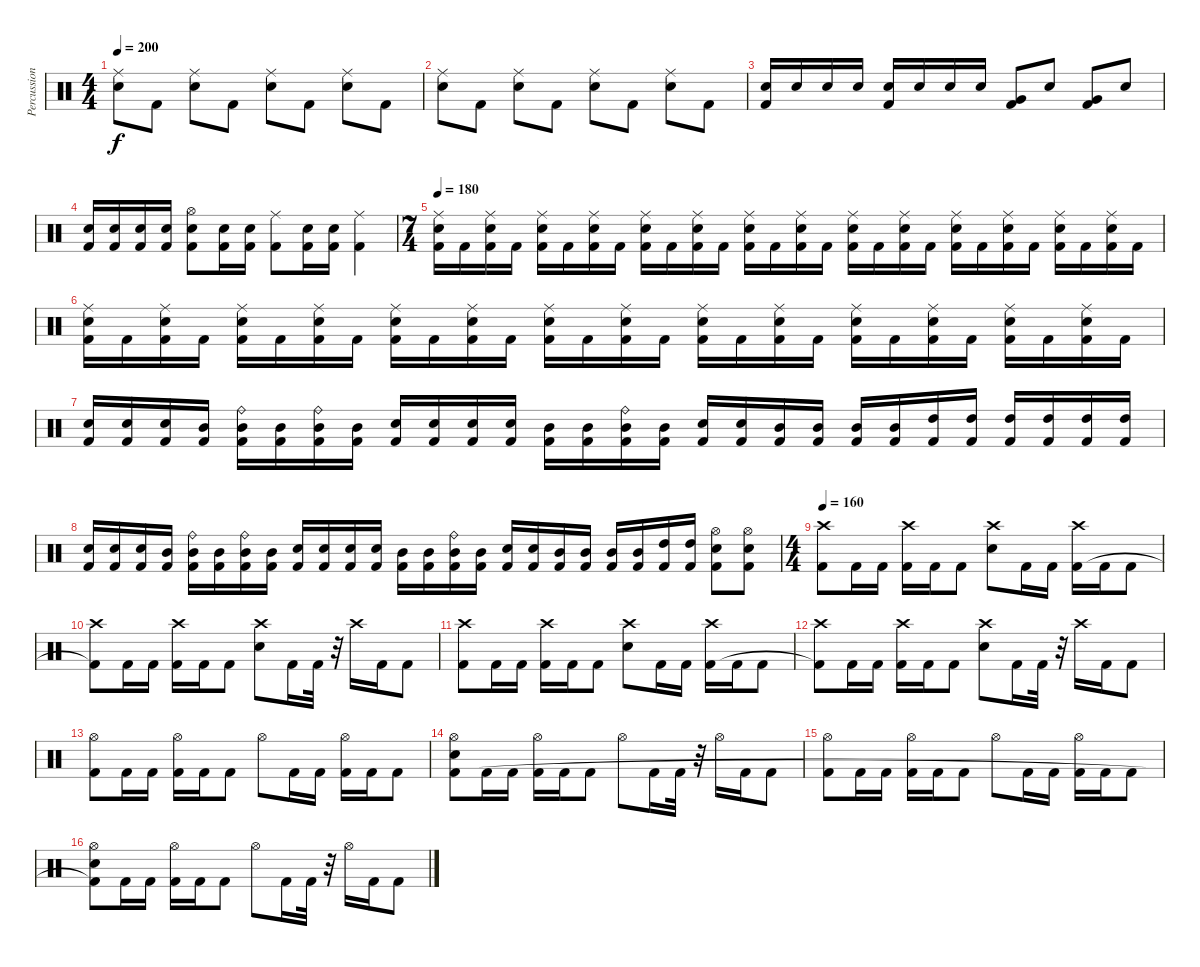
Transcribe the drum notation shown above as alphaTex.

\track ("Percussion" "Percussion") {instrument percussion}
\staff {score}
\articulation defaults
\ts (4 4)
\tempo 200
\clef neutral
\ks c
("Ride (middle)" "Electric Snare (hit)").8{dy f} "Kick (hit) 2".8 ("Ride (middle)" "Electric Snare (hit)").8 "Kick (hit) 2".8 ("Ride (middle)" "Electric Snare (hit)").8 "Kick (hit) 2".8 ("Ride (middle)" "Electric Snare (hit)").8 "Kick (hit) 2".8 |
("Ride (middle)" "Electric Snare (hit)").8 "Kick (hit) 2".8 ("Ride (middle)" "Electric Snare (hit)").8 "Kick (hit) 2".8 ("Ride (middle)" "Electric Snare (hit)").8 "Kick (hit) 2".8 ("Ride (middle)" "Electric Snare (hit)").8 "Kick (hit) 2".8 |
("Electric Snare (hit)" "Kick (hit) 2").16 "Electric Snare (hit)".16 "Electric Snare (hit)".16 "Electric Snare (hit)".16 ("Electric Snare (hit)" "Kick (hit) 2").16 "Electric Snare (hit)".16 "Electric Snare (hit)".16 "Electric Snare (hit)".16 ("Very Low Tom (hit)" "Kick (hit) 2").8 "Electric Snare (hit)".8 ("Very Low Tom (hit)" "Kick (hit) 2").8 "Electric Snare (hit)".8 |
("Electric Snare (hit)" "Kick (hit) 2").16 ("Electric Snare (hit)" "Kick (hit) 2").16 ("Electric Snare (hit)" "Kick (hit) 2").16 ("Electric Snare (hit)" "Kick (hit) 2").16 ("Hi-Hat (open)" "Electric Snare (hit)" "Kick (hit) 2").8 ("Electric Snare (hit)" "Kick (hit) 2").16 ("Electric Snare (hit)" "Kick (hit) 2").16 ("Ride (middle)" "Kick (hit) 2").8 ("Electric Snare (hit)" "Kick (hit) 2").16 ("Electric Snare (hit)" "Kick (hit) 2").16 ("Ride (middle)" "Kick (hit) 2").4 |
\ts (7 4)
\tempo 180
("Ride (middle)" "Electric Snare (hit)" "Kick (hit) 2").16 "Kick (hit) 2".16 ("Ride (middle)" "Electric Snare (hit)" "Kick (hit) 2").16 "Kick (hit) 2".16 ("Ride (middle)" "Electric Snare (hit)" "Kick (hit) 2").16 "Kick (hit) 2".16 ("Ride (middle)" "Electric Snare (hit)" "Kick (hit) 2").16 "Kick (hit) 2".16 ("Ride (middle)" "Electric Snare (hit)" "Kick (hit) 2").16 "Kick (hit) 2".16 ("Ride (middle)" "Electric Snare (hit)" "Kick (hit) 2").16 "Kick (hit) 2".16 ("Ride (middle)" "Electric Snare (hit)" "Kick (hit) 2").16 "Kick (hit) 2".16 ("Ride (middle)" "Electric Snare (hit)" "Kick (hit) 2").16 "Kick (hit) 2".16 ("Ride (middle)" "Electric Snare (hit)" "Kick (hit) 2").16 "Kick (hit) 2".16 ("Ride (middle)" "Electric Snare (hit)" "Kick (hit) 2").16 "Kick (hit) 2".16 ("Ride (middle)" "Electric Snare (hit)" "Kick (hit) 2").16 "Kick (hit) 2".16 ("Ride (middle)" "Electric Snare (hit)" "Kick (hit) 2").16 "Kick (hit) 2".16 ("Ride (middle)" "Electric Snare (hit)" "Kick (hit) 2").16 "Kick (hit) 2".16 ("Ride (middle)" "Electric Snare (hit)" "Kick (hit) 2").16 "Kick (hit) 2".16 |
("Ride (middle)" "Electric Snare (hit)" "Kick (hit) 2").16 "Kick (hit) 2".16 ("Ride (middle)" "Electric Snare (hit)" "Kick (hit) 2").16 "Kick (hit) 2".16 ("Ride (middle)" "Electric Snare (hit)" "Kick (hit) 2").16 "Kick (hit) 2".16 ("Ride (middle)" "Electric Snare (hit)" "Kick (hit) 2").16 "Kick (hit) 2".16 ("Ride (middle)" "Electric Snare (hit)" "Kick (hit) 2").16 "Kick (hit) 2".16 ("Ride (middle)" "Electric Snare (hit)" "Kick (hit) 2").16 "Kick (hit) 2".16 ("Ride (middle)" "Electric Snare (hit)" "Kick (hit) 2").16 "Kick (hit) 2".16 ("Ride (middle)" "Electric Snare (hit)" "Kick (hit) 2").16 "Kick (hit) 2".16 ("Ride (middle)" "Electric Snare (hit)" "Kick (hit) 2").16 "Kick (hit) 2".16 ("Ride (middle)" "Electric Snare (hit)" "Kick (hit) 2").16 "Kick (hit) 2".16 ("Ride (middle)" "Electric Snare (hit)" "Kick (hit) 2").16 "Kick (hit) 2".16 ("Ride (middle)" "Electric Snare (hit)" "Kick (hit) 2").16 "Kick (hit) 2".16 ("Ride (middle)" "Electric Snare (hit)" "Kick (hit) 2").16 "Kick (hit) 2".16 ("Ride (middle)" "Electric Snare (hit)" "Kick (hit) 2").16 "Kick (hit) 2".16 |
("Electric Snare (hit)" "Kick (hit) 2").16 ("Electric Snare (hit)" "Kick (hit) 2").16 ("Electric Snare (hit)" "Kick (hit) 2").16 ("Mid Tom (hit)" "Kick (hit) 2").16 ("Ride (bell)" "Mid Tom (hit)" "Kick (hit) 2").16 ("Mid Tom (hit)" "Kick (hit) 2").16 ("Ride (bell)" "Mid Tom (hit)" "Kick (hit) 2").16 ("Mid Tom (hit)" "Kick (hit) 2").16 ("Electric Snare (hit)" "Kick (hit) 2").16 ("Electric Snare (hit)" "Kick (hit) 2").16 ("Electric Snare (hit)" "Kick (hit) 2").16 ("Electric Snare (hit)" "Kick (hit) 2").16 ("Mid Tom (hit)" "Kick (hit) 2").16 ("Mid Tom (hit)" "Kick (hit) 2").16 ("Ride (bell)" "Mid Tom (hit)" "Kick (hit) 2").16 ("Mid Tom (hit)" "Kick (hit) 2").16 ("Electric Snare (hit)" "Kick (hit) 2").16 ("Electric Snare (hit)" "Kick (hit) 2").16 ("Mid Tom (hit)" "Kick (hit) 2").16 ("Mid Tom (hit)" "Kick (hit) 2").16 ("Mid Tom (hit)" "Kick (hit) 2").16 ("Mid Tom (hit)" "Kick (hit) 2").16 ("High Tom (hit)" "Kick (hit) 2").16 ("High Tom (hit)" "Kick (hit) 2").16 ("High Tom (hit)" "Kick (hit) 2").16 ("High Tom (hit)" "Kick (hit) 2").16 ("High Tom (hit)" "Kick (hit) 2").16 ("High Tom (hit)" "Kick (hit) 2").16 |
("Electric Snare (hit)" "Kick (hit) 2").16 ("Electric Snare (hit)" "Kick (hit) 2").16 ("Electric Snare (hit)" "Kick (hit) 2").16 ("Mid Tom (hit)" "Kick (hit) 2").16 ("Ride (bell)" "Mid Tom (hit)" "Kick (hit) 2").16 ("Mid Tom (hit)" "Kick (hit) 2").16 ("Ride (bell)" "Mid Tom (hit)" "Kick (hit) 2").16 ("Mid Tom (hit)" "Kick (hit) 2").16 ("Electric Snare (hit)" "Kick (hit) 2").16 ("Electric Snare (hit)" "Kick (hit) 2").16 ("Electric Snare (hit)" "Kick (hit) 2").16 ("Electric Snare (hit)" "Kick (hit) 2").16 ("Mid Tom (hit)" "Kick (hit) 2").16 ("Mid Tom (hit)" "Kick (hit) 2").16 ("Ride (bell)" "Mid Tom (hit)" "Kick (hit) 2").16 ("Mid Tom (hit)" "Kick (hit) 2").16 ("Electric Snare (hit)" "Kick (hit) 2").16 ("Electric Snare (hit)" "Kick (hit) 2").16 ("Mid Tom (hit)" "Kick (hit) 2").16 ("Mid Tom (hit)" "Kick (hit) 2").16 ("Mid Tom (hit)" "Kick (hit) 2").16 ("Mid Tom (hit)" "Kick (hit) 2").16 ("High Tom (hit)" "Kick (hit) 2").16 ("High Tom (hit)" "Kick (hit) 2").16 ("Hi-Hat (open)" "Electric Snare (hit)" "Kick (hit) 2").8 ("Hi-Hat (open)" "Electric Snare (hit)" "Kick (hit) 2").8 |
\ts (4 4)
\tempo 160
("Crash high (hit)" "Kick (hit) 2").8 "Kick (hit) 2".16 "Kick (hit) 2".16 ("Crash high (hit)" "Kick (hit) 2").16 "Kick (hit) 2".16 "Kick (hit) 2".8 ("Crash high (hit)" "Electric Snare (hit)").8 "Kick (hit) 2".16 "Kick (hit) 2".16 ("Crash high (hit)" "Kick (hit) 2").16 "Kick (hit) 2".16 "Kick (hit) 2".8 |
("Crash high (hit)" "Kick (hit) 2"{t}).8 "Kick (hit) 2".16 "Kick (hit) 2".16 ("Crash high (hit)" "Kick (hit) 2").16 "Kick (hit) 2".16 "Kick (hit) 2".8 ("Crash high (hit)" "Electric Snare (hit)").8 "Kick (hit) 2".16 "Kick (hit) 2".32 r.32 "Crash high (hit)".16 "Kick (hit) 2".16 "Kick (hit) 2".8 |
("Crash high (hit)" "Kick (hit) 2").8 "Kick (hit) 2".16 "Kick (hit) 2".16 ("Crash high (hit)" "Kick (hit) 2").16 "Kick (hit) 2".16 "Kick (hit) 2".8 ("Crash high (hit)" "Electric Snare (hit)").8 "Kick (hit) 2".16 "Kick (hit) 2".16 ("Crash high (hit)" "Kick (hit) 2").16 "Kick (hit) 2".16 "Kick (hit) 2".8 |
("Crash high (hit)" "Kick (hit) 2"{t}).8 "Kick (hit) 2".16 "Kick (hit) 2".16 ("Crash high (hit)" "Kick (hit) 2").16 "Kick (hit) 2".16 "Kick (hit) 2".8 ("Crash high (hit)" "Electric Snare (hit)").8 "Kick (hit) 2".16 "Kick (hit) 2".32 r.32 "Crash high (hit)".16 "Kick (hit) 2".16 "Kick (hit) 2".8 |
("Hi-Hat (open)" "Kick (hit) 2").8 "Kick (hit) 2".16 "Kick (hit) 2".16 ("Hi-Hat (open)" "Kick (hit) 2").16 "Kick (hit) 2".16 "Kick (hit) 2".8 "Hi-Hat (open)".8 "Kick (hit) 2".16 "Kick (hit) 2".16 ("Hi-Hat (open)" "Kick (hit) 2").16 "Kick (hit) 2".16 "Kick (hit) 2".8 |
("Hi-Hat (open)" "Electric Snare (hit)" "Kick (hit) 2").8 "Kick (hit) 2".16 "Kick (hit) 2".16 ("Hi-Hat (open)" "Kick (hit) 2").16 "Kick (hit) 2".16 "Kick (hit) 2".8 "Hi-Hat (open)".8 "Kick (hit) 2".16 "Kick (hit) 2".32 r.32 "Hi-Hat (open)".16 "Kick (hit) 2".16 "Kick (hit) 2".8 |
("Hi-Hat (open)" "Kick (hit) 2").8 "Kick (hit) 2".16 "Kick (hit) 2".16 ("Hi-Hat (open)" "Kick (hit) 2").16 "Kick (hit) 2".16 "Kick (hit) 2".8 "Hi-Hat (open)".8 "Kick (hit) 2".16 "Kick (hit) 2".16 ("Hi-Hat (open)" "Kick (hit) 2").16 "Kick (hit) 2".16 "Kick (hit) 2".8 |
("Hi-Hat (open)" "Electric Snare (hit)" "Kick (hit) 2"{t}).8 "Kick (hit) 2".16 "Kick (hit) 2".16 ("Hi-Hat (open)" "Kick (hit) 2").16 "Kick (hit) 2".16 "Kick (hit) 2".8 "Hi-Hat (open)".8 "Kick (hit) 2".16 "Kick (hit) 2".32 r.32 "Hi-Hat (open)".16 "Kick (hit) 2".16 "Kick (hit) 2".8
